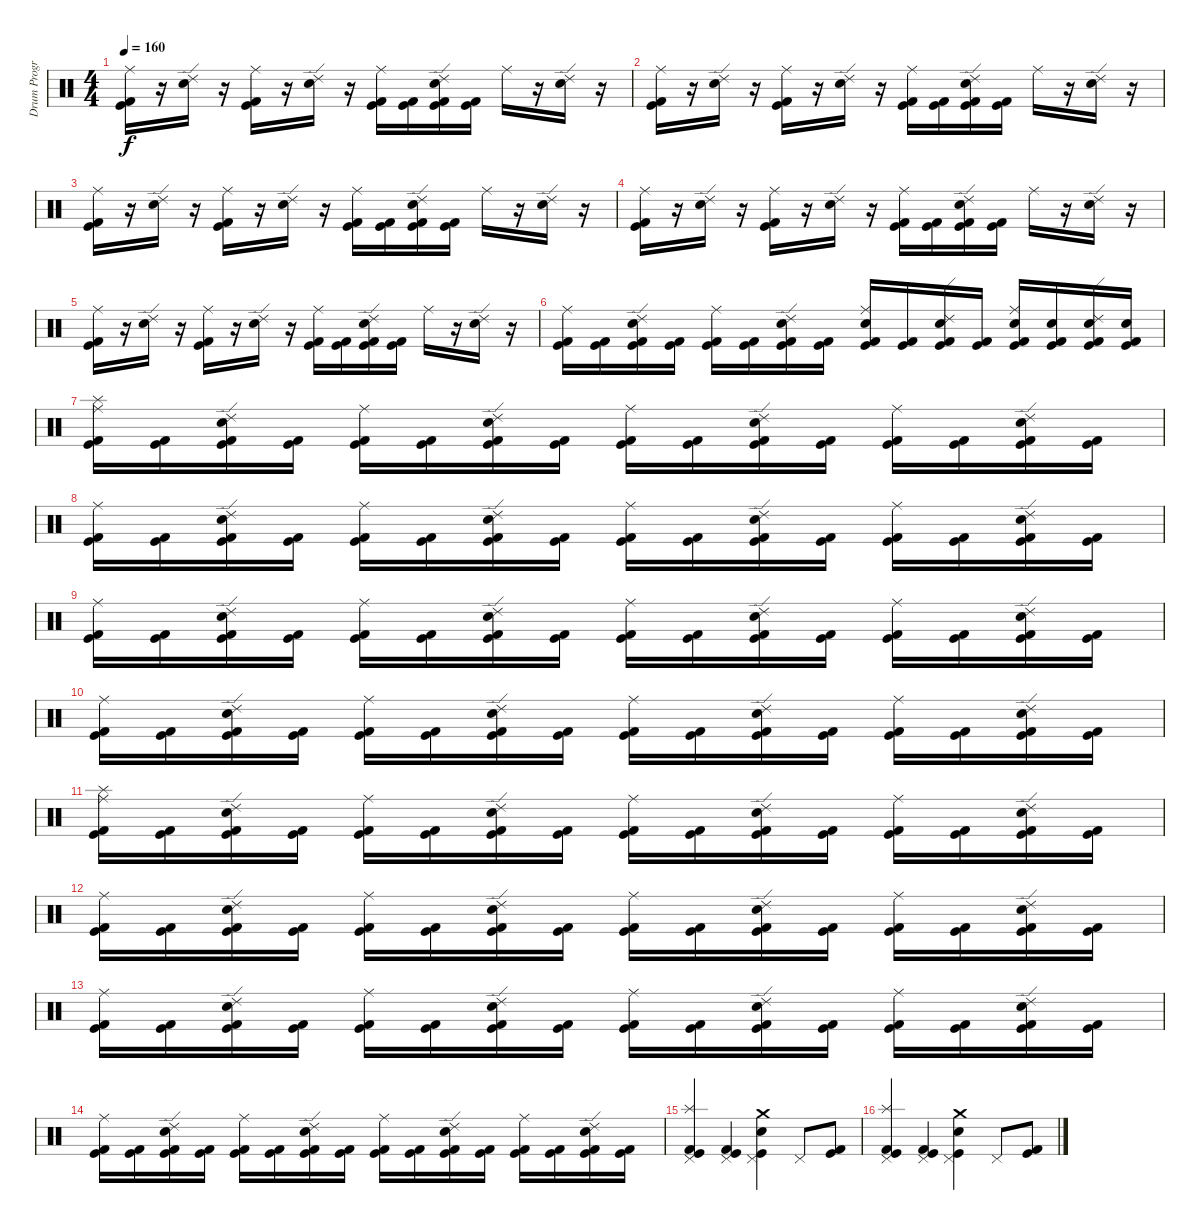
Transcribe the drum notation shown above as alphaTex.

\track ("Drum Program - BG" "Drum Progr") {instrument percussion}
\staff {score}
\articulation defaults
\ts (4 4)
\tempo 160
\clef neutral
\ks c
("Kick (hit) 2" "Kick (hit)" "Ride (middle)").16{dy f} r.16 ("Electric Snare (hit)" "Ride (edge) 2").16 r.16 ("Kick (hit)" "Kick (hit) 2" "Ride (middle)").16 r.16 ("Electric Snare (hit)" "Ride (edge) 2").16 r.16 ("Kick (hit)" "Kick (hit) 2" "Ride (middle)").16 ("Kick (hit)" "Kick (hit) 2").16 ("Kick (hit)" "Kick (hit) 2" "Electric Snare (hit)" "Ride (edge) 2").16 ("Kick (hit)" "Kick (hit) 2").16 "Ride (middle)".16 r.16 ("Electric Snare (hit)" "Ride (edge) 2").16 r.16 |
("Kick (hit) 2" "Kick (hit)" "Ride (middle)").16 r.16 ("Electric Snare (hit)" "Ride (edge) 2").16 r.16 ("Kick (hit)" "Kick (hit) 2" "Ride (middle)").16 r.16 ("Electric Snare (hit)" "Ride (edge) 2").16 r.16 ("Kick (hit)" "Kick (hit) 2" "Ride (middle)").16 ("Kick (hit)" "Kick (hit) 2").16 ("Kick (hit)" "Kick (hit) 2" "Electric Snare (hit)" "Ride (edge) 2").16 ("Kick (hit)" "Kick (hit) 2").16 "Ride (middle)".16 r.16 ("Electric Snare (hit)" "Ride (edge) 2").16 r.16 |
("Kick (hit) 2" "Kick (hit)" "Ride (middle)").16 r.16 ("Electric Snare (hit)" "Ride (edge) 2").16 r.16 ("Kick (hit)" "Kick (hit) 2" "Ride (middle)").16 r.16 ("Electric Snare (hit)" "Ride (edge) 2").16 r.16 ("Kick (hit)" "Kick (hit) 2" "Ride (middle)").16 ("Kick (hit)" "Kick (hit) 2").16 ("Kick (hit)" "Kick (hit) 2" "Electric Snare (hit)" "Ride (edge) 2").16 ("Kick (hit)" "Kick (hit) 2").16 "Ride (middle)".16 r.16 ("Electric Snare (hit)" "Ride (edge) 2").16 r.16 |
("Kick (hit) 2" "Kick (hit)" "Ride (middle)").16 r.16 ("Electric Snare (hit)" "Ride (edge) 2").16 r.16 ("Kick (hit)" "Kick (hit) 2" "Ride (middle)").16 r.16 ("Electric Snare (hit)" "Ride (edge) 2").16 r.16 ("Kick (hit)" "Kick (hit) 2" "Ride (middle)").16 ("Kick (hit)" "Kick (hit) 2").16 ("Kick (hit)" "Kick (hit) 2" "Electric Snare (hit)" "Ride (edge) 2").16 ("Kick (hit)" "Kick (hit) 2").16 "Ride (middle)".16 r.16 ("Electric Snare (hit)" "Ride (edge) 2").16 r.16 |
("Kick (hit) 2" "Kick (hit)" "Ride (middle)").16 r.16 ("Electric Snare (hit)" "Ride (edge) 2").16 r.16 ("Kick (hit)" "Kick (hit) 2" "Ride (middle)").16 r.16 ("Electric Snare (hit)" "Ride (edge) 2").16 r.16 ("Kick (hit)" "Kick (hit) 2" "Ride (middle)").16 ("Kick (hit)" "Kick (hit) 2").16 ("Kick (hit)" "Kick (hit) 2" "Electric Snare (hit)" "Ride (edge) 2").16 ("Kick (hit)" "Kick (hit) 2").16 "Ride (middle)".16 r.16 ("Electric Snare (hit)" "Ride (edge) 2").16 r.16 |
("Kick (hit)" "Kick (hit) 2" "Ride (middle)").16 ("Kick (hit)" "Kick (hit) 2").16 ("Kick (hit)" "Kick (hit) 2" "Electric Snare (hit)" "Ride (edge) 2").16 ("Kick (hit)" "Kick (hit) 2").16 ("Kick (hit)" "Kick (hit) 2" "Ride (middle)").16 ("Kick (hit)" "Kick (hit) 2").16 ("Kick (hit)" "Kick (hit) 2" "Electric Snare (hit)" "Ride (edge) 2").16 ("Kick (hit)" "Kick (hit) 2").16 ("Kick (hit)" "Kick (hit) 2" "Electric Snare (hit)" "Ride (middle)").16 ("Kick (hit)" "Kick (hit) 2").16 ("Kick (hit)" "Kick (hit) 2" "Electric Snare (hit)" "Ride (edge) 2").16 ("Kick (hit)" "Kick (hit) 2").16 ("Kick (hit)" "Kick (hit) 2" "Electric Snare (hit)" "Ride (middle)").16 ("Kick (hit)" "Kick (hit) 2" "Electric Snare (hit)").16 ("Kick (hit)" "Kick (hit) 2" "Electric Snare (hit)" "Ride (edge) 2").16 ("Kick (hit)" "Kick (hit) 2" "Electric Snare (hit)").16 |
("Kick (hit)" "Kick (hit) 2" "Splash (hit)" "Ride (middle)").16 ("Kick (hit)" "Kick (hit) 2").16 ("Kick (hit)" "Kick (hit) 2" "Electric Snare (hit)" "Ride (edge) 2").16 ("Kick (hit)" "Kick (hit) 2").16 ("Kick (hit)" "Kick (hit) 2" "Ride (middle)").16 ("Kick (hit)" "Kick (hit) 2").16 ("Kick (hit)" "Kick (hit) 2" "Electric Snare (hit)" "Ride (edge) 2").16 ("Kick (hit)" "Kick (hit) 2").16 ("Kick (hit)" "Kick (hit) 2" "Ride (middle)").16 ("Kick (hit)" "Kick (hit) 2").16 ("Kick (hit)" "Kick (hit) 2" "Electric Snare (hit)" "Ride (edge) 2").16 ("Kick (hit)" "Kick (hit) 2").16 ("Kick (hit)" "Kick (hit) 2" "Ride (middle)").16 ("Kick (hit)" "Kick (hit) 2").16 ("Kick (hit)" "Kick (hit) 2" "Electric Snare (hit)" "Ride (edge) 2").16 ("Kick (hit)" "Kick (hit) 2").16 |
("Kick (hit)" "Kick (hit) 2" "Ride (middle)").16 ("Kick (hit)" "Kick (hit) 2").16 ("Kick (hit)" "Kick (hit) 2" "Electric Snare (hit)" "Ride (edge) 2").16 ("Kick (hit)" "Kick (hit) 2").16 ("Kick (hit)" "Kick (hit) 2" "Ride (middle)").16 ("Kick (hit)" "Kick (hit) 2").16 ("Kick (hit)" "Kick (hit) 2" "Electric Snare (hit)" "Ride (edge) 2").16 ("Kick (hit)" "Kick (hit) 2").16 ("Kick (hit)" "Kick (hit) 2" "Ride (middle)").16 ("Kick (hit)" "Kick (hit) 2").16 ("Kick (hit)" "Kick (hit) 2" "Electric Snare (hit)" "Ride (edge) 2").16 ("Kick (hit)" "Kick (hit) 2").16 ("Kick (hit)" "Kick (hit) 2" "Ride (middle)").16 ("Kick (hit)" "Kick (hit) 2").16 ("Kick (hit)" "Kick (hit) 2" "Electric Snare (hit)" "Ride (edge) 2").16 ("Kick (hit)" "Kick (hit) 2").16 |
("Kick (hit)" "Kick (hit) 2" "Ride (middle)").16 ("Kick (hit)" "Kick (hit) 2").16 ("Kick (hit)" "Kick (hit) 2" "Electric Snare (hit)" "Ride (edge) 2").16 ("Kick (hit)" "Kick (hit) 2").16 ("Kick (hit)" "Kick (hit) 2" "Ride (middle)").16 ("Kick (hit)" "Kick (hit) 2").16 ("Kick (hit)" "Kick (hit) 2" "Electric Snare (hit)" "Ride (edge) 2").16 ("Kick (hit)" "Kick (hit) 2").16 ("Kick (hit)" "Kick (hit) 2" "Ride (middle)").16 ("Kick (hit)" "Kick (hit) 2").16 ("Kick (hit)" "Kick (hit) 2" "Electric Snare (hit)" "Ride (edge) 2").16 ("Kick (hit)" "Kick (hit) 2").16 ("Kick (hit)" "Kick (hit) 2" "Ride (middle)").16 ("Kick (hit)" "Kick (hit) 2").16 ("Kick (hit)" "Kick (hit) 2" "Electric Snare (hit)" "Ride (edge) 2").16 ("Kick (hit)" "Kick (hit) 2").16 |
("Kick (hit)" "Kick (hit) 2" "Ride (middle)").16 ("Kick (hit)" "Kick (hit) 2").16 ("Kick (hit)" "Kick (hit) 2" "Electric Snare (hit)" "Ride (edge) 2").16 ("Kick (hit)" "Kick (hit) 2").16 ("Kick (hit)" "Kick (hit) 2" "Ride (middle)").16 ("Kick (hit)" "Kick (hit) 2").16 ("Kick (hit)" "Kick (hit) 2" "Electric Snare (hit)" "Ride (edge) 2").16 ("Kick (hit)" "Kick (hit) 2").16 ("Kick (hit)" "Kick (hit) 2" "Ride (middle)").16 ("Kick (hit)" "Kick (hit) 2").16 ("Kick (hit)" "Kick (hit) 2" "Electric Snare (hit)" "Ride (edge) 2").16 ("Kick (hit)" "Kick (hit) 2").16 ("Kick (hit)" "Kick (hit) 2" "Ride (middle)").16 ("Kick (hit)" "Kick (hit) 2").16 ("Kick (hit)" "Kick (hit) 2" "Electric Snare (hit)" "Ride (edge) 2").16 ("Kick (hit)" "Kick (hit) 2").16 |
("Kick (hit)" "Kick (hit) 2" "Splash (hit)" "Ride (middle)").16 ("Kick (hit)" "Kick (hit) 2").16 ("Kick (hit)" "Kick (hit) 2" "Electric Snare (hit)" "Ride (edge) 2").16 ("Kick (hit)" "Kick (hit) 2").16 ("Kick (hit)" "Kick (hit) 2" "Ride (middle)").16 ("Kick (hit)" "Kick (hit) 2").16 ("Kick (hit)" "Kick (hit) 2" "Electric Snare (hit)" "Ride (edge) 2").16 ("Kick (hit)" "Kick (hit) 2").16 ("Kick (hit)" "Kick (hit) 2" "Ride (middle)").16 ("Kick (hit)" "Kick (hit) 2").16 ("Kick (hit)" "Kick (hit) 2" "Electric Snare (hit)" "Ride (edge) 2").16 ("Kick (hit)" "Kick (hit) 2").16 ("Kick (hit)" "Kick (hit) 2" "Ride (middle)").16 ("Kick (hit)" "Kick (hit) 2").16 ("Kick (hit)" "Kick (hit) 2" "Electric Snare (hit)" "Ride (edge) 2").16 ("Kick (hit)" "Kick (hit) 2").16 |
("Kick (hit)" "Kick (hit) 2" "Ride (middle)").16 ("Kick (hit)" "Kick (hit) 2").16 ("Kick (hit)" "Kick (hit) 2" "Electric Snare (hit)" "Ride (edge) 2").16 ("Kick (hit)" "Kick (hit) 2").16 ("Kick (hit)" "Kick (hit) 2" "Ride (middle)").16 ("Kick (hit)" "Kick (hit) 2").16 ("Kick (hit)" "Kick (hit) 2" "Electric Snare (hit)" "Ride (edge) 2").16 ("Kick (hit)" "Kick (hit) 2").16 ("Kick (hit)" "Kick (hit) 2" "Ride (middle)").16 ("Kick (hit)" "Kick (hit) 2").16 ("Kick (hit)" "Kick (hit) 2" "Electric Snare (hit)" "Ride (edge) 2").16 ("Kick (hit)" "Kick (hit) 2").16 ("Kick (hit)" "Kick (hit) 2" "Ride (middle)").16 ("Kick (hit)" "Kick (hit) 2").16 ("Kick (hit)" "Kick (hit) 2" "Electric Snare (hit)" "Ride (edge) 2").16 ("Kick (hit)" "Kick (hit) 2").16 |
("Kick (hit)" "Kick (hit) 2" "Ride (middle)").16 ("Kick (hit)" "Kick (hit) 2").16 ("Kick (hit)" "Kick (hit) 2" "Electric Snare (hit)" "Ride (edge) 2").16 ("Kick (hit)" "Kick (hit) 2").16 ("Kick (hit)" "Kick (hit) 2" "Ride (middle)").16 ("Kick (hit)" "Kick (hit) 2").16 ("Kick (hit)" "Kick (hit) 2" "Electric Snare (hit)" "Ride (edge) 2").16 ("Kick (hit)" "Kick (hit) 2").16 ("Kick (hit)" "Kick (hit) 2" "Ride (middle)").16 ("Kick (hit)" "Kick (hit) 2").16 ("Kick (hit)" "Kick (hit) 2" "Electric Snare (hit)" "Ride (edge) 2").16 ("Kick (hit)" "Kick (hit) 2").16 ("Kick (hit)" "Kick (hit) 2" "Ride (middle)").16 ("Kick (hit)" "Kick (hit) 2").16 ("Kick (hit)" "Kick (hit) 2" "Electric Snare (hit)" "Ride (edge) 2").16 ("Kick (hit)" "Kick (hit) 2").16 |
("Kick (hit)" "Kick (hit) 2" "Ride (middle)").16 ("Kick (hit)" "Kick (hit) 2").16 ("Kick (hit)" "Kick (hit) 2" "Electric Snare (hit)" "Ride (edge) 2").16 ("Kick (hit)" "Kick (hit) 2").16 ("Kick (hit)" "Kick (hit) 2" "Ride (middle)").16 ("Kick (hit)" "Kick (hit) 2").16 ("Kick (hit)" "Kick (hit) 2" "Electric Snare (hit)" "Ride (edge) 2").16 ("Kick (hit)" "Kick (hit) 2").16 ("Kick (hit)" "Kick (hit) 2" "Ride (middle)").16 ("Kick (hit)" "Kick (hit) 2").16 ("Kick (hit)" "Kick (hit) 2" "Electric Snare (hit)" "Ride (edge) 2").16 ("Kick (hit)" "Kick (hit) 2").16 ("Kick (hit)" "Kick (hit) 2" "Ride (middle)").16 ("Kick (hit)" "Kick (hit) 2").16 ("Kick (hit)" "Kick (hit) 2" "Electric Snare (hit)" "Ride (edge) 2").16 ("Kick (hit)" "Kick (hit) 2").16 |
("Kick (hit) 2" "Kick (hit)" "Splash (hit)" "Pedal Hi-Hat (hit)").4 ("Kick (hit) 2" "Kick (hit)" "Pedal Hi-Hat (hit)").4 ("Crash medium (hit)" "Kick (hit)" "Electric Snare (hit)" "Pedal Hi-Hat (hit)").4 "Pedal Hi-Hat (hit)".8 ("Kick (hit)" "Kick (hit) 2").8 |
("Kick (hit) 2" "Kick (hit)" "Splash (hit)" "Pedal Hi-Hat (hit)").4 ("Kick (hit) 2" "Kick (hit)" "Pedal Hi-Hat (hit)").4 ("Crash medium (hit)" "Kick (hit)" "Electric Snare (hit)" "Pedal Hi-Hat (hit)").4 "Pedal Hi-Hat (hit)".8 ("Kick (hit)" "Kick (hit) 2").8
